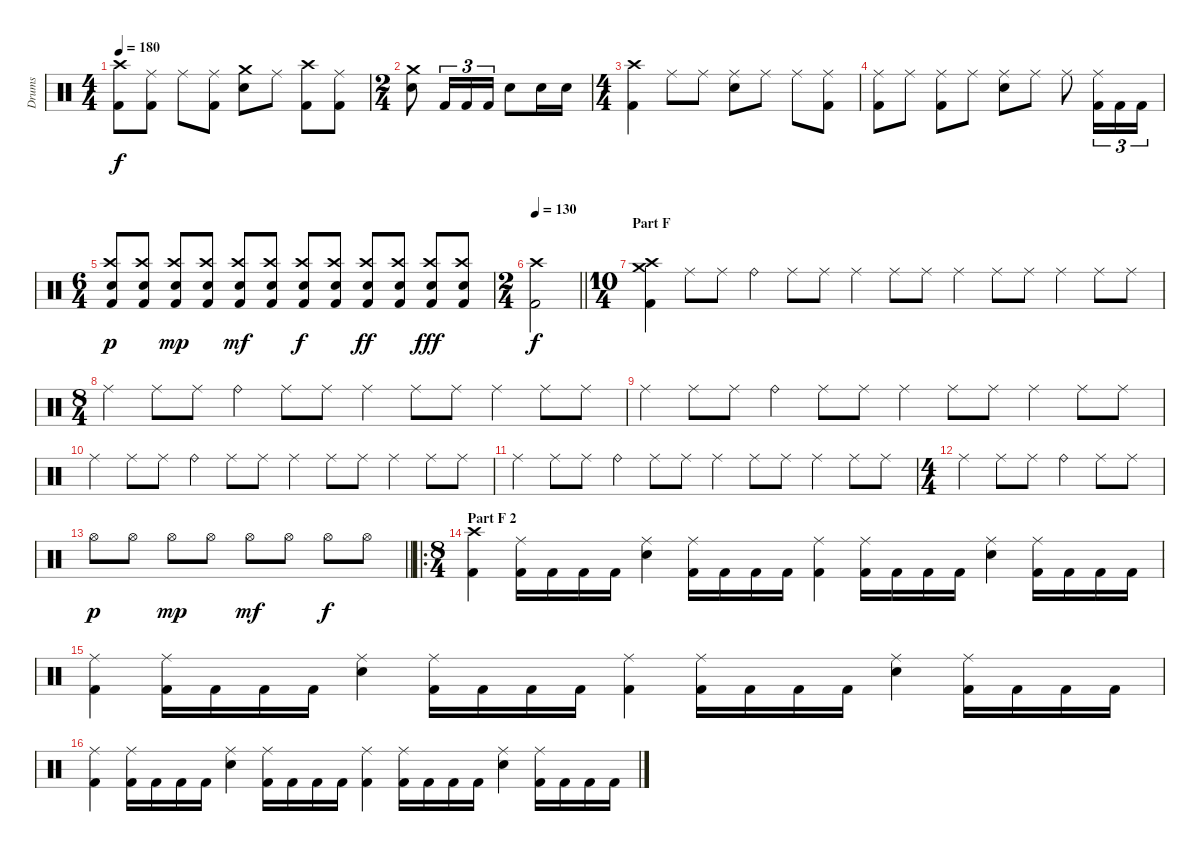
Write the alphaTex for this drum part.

\track ("Drums" "Drums") {instrument percussion}
\staff {score}
\articulation defaults
\ts (4 4)
\tempo 180
\clef neutral
\ks c
("Kick (hit) 2" "Crash high (hit)").8{dy f} ("Ride (middle)" "Kick (hit) 2").8 "Ride (middle)".8 ("Ride (middle)" "Kick (hit) 2").8 ("Crash medium (hit)" "Snare (hit) 2").8 "Ride (middle)".8 ("Crash high (hit)" "Kick (hit) 2").8 ("Ride (middle)" "Kick (hit) 2").8 |
\ts (2 4)
("Crash medium (hit)" "Snare (hit) 2").8 "Kick (hit) 2".16{tu (3 2)} "Kick (hit) 2".16{tu (3 2)} "Kick (hit) 2".16{tu (3 2)} "Snare (hit) 2".8 "Snare (hit) 2".16 "Snare (hit) 2".16 |
\ts (4 4)
("Kick (hit) 2" "Crash high (hit)").4 "Ride (middle)".8 "Ride (middle)".8 ("Ride (middle)" "Snare (hit) 2").8 "Ride (middle)".8 "Ride (middle)".8 ("Ride (middle)" "Kick (hit) 2").8 |
("Kick (hit) 2" "Ride (middle)").8 "Ride (middle)".8 ("Ride (middle)" "Kick (hit) 2").8 "Ride (middle)".8 ("Ride (middle)" "Snare (hit) 2").8 "Ride (middle)".8 "Ride (middle)".8 ("Ride (middle)" "Kick (hit) 2").16{tu (3 2)} "Kick (hit) 2".16{tu (3 2)} "Kick (hit) 2".16{tu (3 2)} |
\ts (6 4)
("Kick (hit) 2" "Crash high (hit)" "Snare (hit) 2").8{dy p} ("Kick (hit) 2" "Crash high (hit)" "Snare (hit) 2").8 ("Kick (hit) 2" "Crash high (hit)" "Snare (hit) 2").8{dy mp} ("Kick (hit) 2" "Crash high (hit)" "Snare (hit) 2").8 ("Kick (hit) 2" "Crash high (hit)" "Snare (hit) 2").8{dy mf} ("Kick (hit) 2" "Crash high (hit)" "Snare (hit) 2").8 ("Kick (hit) 2" "Crash high (hit)" "Snare (hit) 2").8{dy f} ("Kick (hit) 2" "Crash high (hit)" "Snare (hit) 2").8 ("Kick (hit) 2" "Crash high (hit)" "Snare (hit) 2").8{dy ff} ("Kick (hit) 2" "Crash high (hit)" "Snare (hit) 2").8 ("Kick (hit) 2" "Crash high (hit)" "Snare (hit) 2").8{dy fff} ("Kick (hit) 2" "Crash high (hit)" "Snare (hit) 2").8 |
\ts (2 4)
\tempo 130
\barLineRight lightlight
("Kick (hit) 2" "Crash high (hit)").2{dy f} |
\ts (10 4)
\section ("" "Part F")
("Crash medium (hit)" "Crash high (hit)" "Kick (hit) 2").4 "Ride (middle)".8 "Ride (middle)".8 "Ride (bell)".4 "Ride (middle)".8 "Ride (middle)".8 "Ride (middle)".4 "Ride (middle)".8 "Ride (middle)".8 "Ride (middle)".4 "Ride (middle)".8 "Ride (middle)".8 "Ride (middle)".4 "Ride (middle)".8 "Ride (middle)".8 |
\ts (8 4)
"Ride (middle)".4 "Ride (middle)".8 "Ride (middle)".8 "Ride (bell)".4 "Ride (middle)".8 "Ride (middle)".8 "Ride (middle)".4 "Ride (middle)".8 "Ride (middle)".8 "Ride (middle)".4 "Ride (middle)".8 "Ride (middle)".8 |
"Ride (middle)".4 "Ride (middle)".8 "Ride (middle)".8 "Ride (bell)".4 "Ride (middle)".8 "Ride (middle)".8 "Ride (middle)".4 "Ride (middle)".8 "Ride (middle)".8 "Ride (middle)".4 "Ride (middle)".8 "Ride (middle)".8 |
"Ride (middle)".4 "Ride (middle)".8 "Ride (middle)".8 "Ride (bell)".4 "Ride (middle)".8 "Ride (middle)".8 "Ride (middle)".4 "Ride (middle)".8 "Ride (middle)".8 "Ride (middle)".4 "Ride (middle)".8 "Ride (middle)".8 |
"Ride (middle)".4 "Ride (middle)".8 "Ride (middle)".8 "Ride (bell)".4 "Ride (middle)".8 "Ride (middle)".8 "Ride (middle)".4 "Ride (middle)".8 "Ride (middle)".8 "Ride (middle)".4 "Ride (middle)".8 "Ride (middle)".8 |
\ts (4 4)
"Ride (middle)".4 "Ride (middle)".8 "Ride (middle)".8 "Ride (bell)".4 "Ride (middle)".8 "Ride (middle)".8 |
\barLineRight lightlight "Hi-Hat (open)".8{dy p} "Hi-Hat (open)".8 "Hi-Hat (open)".8{dy mp} "Hi-Hat (open)".8 "Hi-Hat (open)".8{dy mf} "Hi-Hat (open)".8 "Hi-Hat (open)".8{dy f} "Hi-Hat (open)".8
|
\ro
\ts (8 4)
\section ("" "Part F 2")
("Kick (hit) 2" "Crash high (hit)").4 ("Kick (hit) 2" "Ride (middle)").16 "Kick (hit) 2".16 "Kick (hit) 2".16 "Kick (hit) 2".16 ("Snare (hit) 2" "Ride (middle)").4 ("Kick (hit) 2" "Ride (middle)").16 "Kick (hit) 2".16 "Kick (hit) 2".16 "Kick (hit) 2".16 ("Kick (hit) 2" "Ride (middle)").4 ("Kick (hit) 2" "Ride (middle)").16 "Kick (hit) 2".16 "Kick (hit) 2".16 "Kick (hit) 2".16 ("Snare (hit) 2" "Ride (middle)").4 ("Kick (hit) 2" "Ride (middle)").16 "Kick (hit) 2".16 "Kick (hit) 2".16 "Kick (hit) 2".16 |
("Kick (hit) 2" "Ride (middle)").4 ("Kick (hit) 2" "Ride (middle)").16 "Kick (hit) 2".16 "Kick (hit) 2".16 "Kick (hit) 2".16 ("Snare (hit) 2" "Ride (middle)").4 ("Kick (hit) 2" "Ride (middle)").16 "Kick (hit) 2".16 "Kick (hit) 2".16 "Kick (hit) 2".16 ("Kick (hit) 2" "Ride (middle)").4 ("Kick (hit) 2" "Ride (middle)").16 "Kick (hit) 2".16 "Kick (hit) 2".16 "Kick (hit) 2".16 ("Snare (hit) 2" "Ride (middle)").4 ("Kick (hit) 2" "Ride (middle)").16 "Kick (hit) 2".16 "Kick (hit) 2".16 "Kick (hit) 2".16 |
("Kick (hit) 2" "Ride (middle)").4 ("Kick (hit) 2" "Ride (middle)").16 "Kick (hit) 2".16 "Kick (hit) 2".16 "Kick (hit) 2".16 ("Snare (hit) 2" "Ride (middle)").4 ("Kick (hit) 2" "Ride (middle)").16 "Kick (hit) 2".16 "Kick (hit) 2".16 "Kick (hit) 2".16 ("Kick (hit) 2" "Ride (middle)").4 ("Kick (hit) 2" "Ride (middle)").16 "Kick (hit) 2".16 "Kick (hit) 2".16 "Kick (hit) 2".16 ("Snare (hit) 2" "Ride (middle)").4 ("Kick (hit) 2" "Ride (middle)").16 "Kick (hit) 2".16 "Kick (hit) 2".16 "Kick (hit) 2".16
